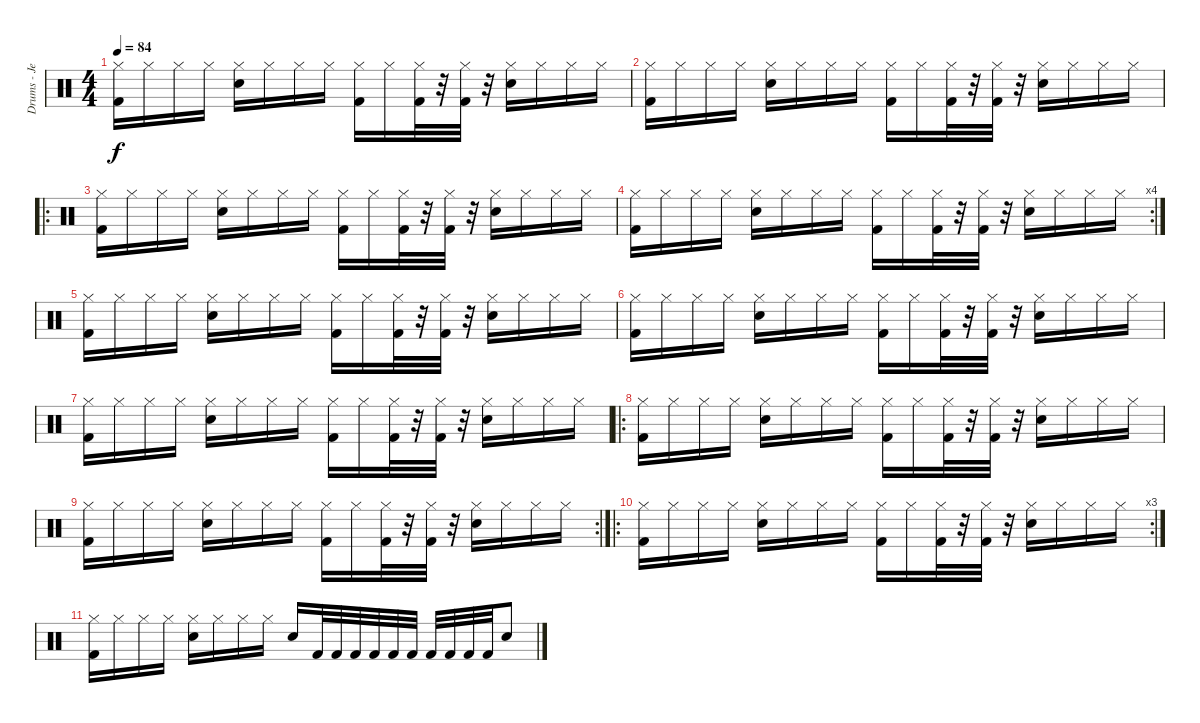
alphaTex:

\track ("Drums - Jeff Campitelli" "Drums - Je") {instrument percussion}
\staff {score}
\articulation defaults
\ts (4 4)
\tempo 84
\clef neutral
\ks c
("Kick (hit) 2" "Hi-Hat (closed)").16{dy f} "Hi-Hat (closed)".16 "Hi-Hat (closed)".16 "Hi-Hat (closed)".16 ("Electric Snare (hit)" "Hi-Hat (closed)").16 "Hi-Hat (closed)".16 "Hi-Hat (closed)".16 "Hi-Hat (closed)".16 ("Kick (hit) 2" "Hi-Hat (closed)").16 "Hi-Hat (closed)".16 ("Kick (hit) 2" "Hi-Hat (closed)").32 r.32 ("Kick (hit) 2" "Hi-Hat (closed)").32 r.32 ("Electric Snare (hit)" "Hi-Hat (closed)").16 "Hi-Hat (closed)".16 "Hi-Hat (closed)".16 "Hi-Hat (closed)".16 |
("Kick (hit) 2" "Hi-Hat (closed)").16 "Hi-Hat (closed)".16 "Hi-Hat (closed)".16 "Hi-Hat (closed)".16 ("Electric Snare (hit)" "Hi-Hat (closed)").16 "Hi-Hat (closed)".16 "Hi-Hat (closed)".16 "Hi-Hat (closed)".16 ("Kick (hit) 2" "Hi-Hat (closed)").16 "Hi-Hat (closed)".16 ("Kick (hit) 2" "Hi-Hat (closed)").32 r.32 ("Kick (hit) 2" "Hi-Hat (closed)").32 r.32 ("Electric Snare (hit)" "Hi-Hat (closed)").16 "Hi-Hat (closed)".16 "Hi-Hat (closed)".16 "Hi-Hat (closed)".16 |
\ro
("Kick (hit) 2" "Hi-Hat (closed)").16 "Hi-Hat (closed)".16 "Hi-Hat (closed)".16 "Hi-Hat (closed)".16 ("Electric Snare (hit)" "Hi-Hat (closed)").16 "Hi-Hat (closed)".16 "Hi-Hat (closed)".16 "Hi-Hat (closed)".16 ("Kick (hit) 2" "Hi-Hat (closed)").16 "Hi-Hat (closed)".16 ("Kick (hit) 2" "Hi-Hat (closed)").32 r.32 ("Kick (hit) 2" "Hi-Hat (closed)").32 r.32 ("Electric Snare (hit)" "Hi-Hat (closed)").16 "Hi-Hat (closed)".16 "Hi-Hat (closed)".16 "Hi-Hat (closed)".16 |
\rc 4
("Kick (hit) 2" "Hi-Hat (closed)").16 "Hi-Hat (closed)".16 "Hi-Hat (closed)".16 "Hi-Hat (closed)".16 ("Electric Snare (hit)" "Hi-Hat (closed)").16 "Hi-Hat (closed)".16 "Hi-Hat (closed)".16 "Hi-Hat (closed)".16 ("Kick (hit) 2" "Hi-Hat (closed)").16 "Hi-Hat (closed)".16 ("Kick (hit) 2" "Hi-Hat (closed)").32 r.32 ("Kick (hit) 2" "Hi-Hat (closed)").32 r.32 ("Electric Snare (hit)" "Hi-Hat (closed)").16 "Hi-Hat (closed)".16 "Hi-Hat (closed)".16 "Hi-Hat (closed)".16 |
("Kick (hit) 2" "Hi-Hat (closed)").16 "Hi-Hat (closed)".16 "Hi-Hat (closed)".16 "Hi-Hat (closed)".16 ("Electric Snare (hit)" "Hi-Hat (closed)").16 "Hi-Hat (closed)".16 "Hi-Hat (closed)".16 "Hi-Hat (closed)".16 ("Kick (hit) 2" "Hi-Hat (closed)").16 "Hi-Hat (closed)".16 ("Kick (hit) 2" "Hi-Hat (closed)").32 r.32 ("Kick (hit) 2" "Hi-Hat (closed)").32 r.32 ("Electric Snare (hit)" "Hi-Hat (closed)").16 "Hi-Hat (closed)".16 "Hi-Hat (closed)".16 "Hi-Hat (closed)".16 |
("Kick (hit) 2" "Hi-Hat (closed)").16 "Hi-Hat (closed)".16 "Hi-Hat (closed)".16 "Hi-Hat (closed)".16 ("Electric Snare (hit)" "Hi-Hat (closed)").16 "Hi-Hat (closed)".16 "Hi-Hat (closed)".16 "Hi-Hat (closed)".16 ("Kick (hit) 2" "Hi-Hat (closed)").16 "Hi-Hat (closed)".16 ("Kick (hit) 2" "Hi-Hat (closed)").32 r.32 ("Kick (hit) 2" "Hi-Hat (closed)").32 r.32 ("Electric Snare (hit)" "Hi-Hat (closed)").16 "Hi-Hat (closed)".16 "Hi-Hat (closed)".16 "Hi-Hat (closed)".16 |
("Kick (hit) 2" "Hi-Hat (closed)").16 "Hi-Hat (closed)".16 "Hi-Hat (closed)".16 "Hi-Hat (closed)".16 ("Electric Snare (hit)" "Hi-Hat (closed)").16 "Hi-Hat (closed)".16 "Hi-Hat (closed)".16 "Hi-Hat (closed)".16 ("Kick (hit) 2" "Hi-Hat (closed)").16 "Hi-Hat (closed)".16 ("Kick (hit) 2" "Hi-Hat (closed)").32 r.32 ("Kick (hit) 2" "Hi-Hat (closed)").32 r.32 ("Electric Snare (hit)" "Hi-Hat (closed)").16 "Hi-Hat (closed)".16 "Hi-Hat (closed)".16 "Hi-Hat (closed)".16 |
\ro
("Kick (hit) 2" "Hi-Hat (closed)").16 "Hi-Hat (closed)".16 "Hi-Hat (closed)".16 "Hi-Hat (closed)".16 ("Electric Snare (hit)" "Hi-Hat (closed)").16 "Hi-Hat (closed)".16 "Hi-Hat (closed)".16 "Hi-Hat (closed)".16 ("Kick (hit) 2" "Hi-Hat (closed)").16 "Hi-Hat (closed)".16 ("Kick (hit) 2" "Hi-Hat (closed)").32 r.32 ("Kick (hit) 2" "Hi-Hat (closed)").32 r.32 ("Electric Snare (hit)" "Hi-Hat (closed)").16 "Hi-Hat (closed)".16 "Hi-Hat (closed)".16 "Hi-Hat (closed)".16 |
\rc 2
("Kick (hit) 2" "Hi-Hat (closed)").16 "Hi-Hat (closed)".16 "Hi-Hat (closed)".16 "Hi-Hat (closed)".16 ("Electric Snare (hit)" "Hi-Hat (closed)").16 "Hi-Hat (closed)".16 "Hi-Hat (closed)".16 "Hi-Hat (closed)".16 ("Kick (hit) 2" "Hi-Hat (closed)").16 "Hi-Hat (closed)".16 ("Kick (hit) 2" "Hi-Hat (closed)").32 r.32 ("Kick (hit) 2" "Hi-Hat (closed)").32 r.32 ("Electric Snare (hit)" "Hi-Hat (closed)").16 "Hi-Hat (closed)".16 "Hi-Hat (closed)".16 "Hi-Hat (closed)".16 |
\ro
\rc 3
("Kick (hit) 2" "Hi-Hat (closed)").16 "Hi-Hat (closed)".16 "Hi-Hat (closed)".16 "Hi-Hat (closed)".16 ("Electric Snare (hit)" "Hi-Hat (closed)").16 "Hi-Hat (closed)".16 "Hi-Hat (closed)".16 "Hi-Hat (closed)".16 ("Kick (hit) 2" "Hi-Hat (closed)").16 "Hi-Hat (closed)".16 ("Kick (hit) 2" "Hi-Hat (closed)").32 r.32 ("Kick (hit) 2" "Hi-Hat (closed)").32 r.32 ("Electric Snare (hit)" "Hi-Hat (closed)").16 "Hi-Hat (closed)".16 "Hi-Hat (closed)".16 "Hi-Hat (closed)".16 |
("Kick (hit) 2" "Hi-Hat (closed)").16 "Hi-Hat (closed)".16 "Hi-Hat (closed)".16 "Hi-Hat (closed)".16 ("Electric Snare (hit)" "Hi-Hat (closed)").16 "Hi-Hat (closed)".16 "Hi-Hat (closed)".16 "Hi-Hat (closed)".16 "Electric Snare (hit)".16 "Kick (hit) 2".32 "Kick (hit) 2".32 "Kick (hit) 2".32 "Kick (hit) 2".32 "Kick (hit) 2".32 "Kick (hit) 2".32 "Kick (hit) 2".32 "Kick (hit) 2".32 "Kick (hit) 2".32 "Kick (hit) 2".32 "Snare (hit) 2".8
